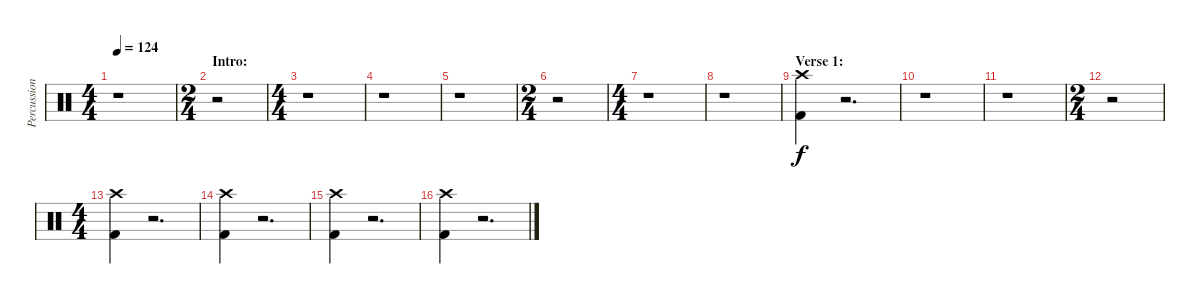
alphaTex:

\track ("Percussion" "Percussion") {instrument percussion}
\staff {score}
\articulation defaults
\ts (4 4)
\tempo 124
\clef neutral
\ks c
r.1{dy f} |
\ts (2 4)
\section ("" "Intro:")
r.2 |
\ts (4 4)
r.1 |
r.1 |
r.1 |
\ts (2 4)
r.2 |
\ts (4 4)
r.1 |
r.1 |
\section ("" "Verse 1:")
("Crash high (hit)" "Kick (hit) 2").4 r.2{d} |
r.1 |
r.1 |
\ts (2 4)
r.2 |
\ts (4 4)
("Crash high (hit)" "Kick (hit) 2").4 r.2{d} |
("Crash high (hit)" "Kick (hit) 2").4 r.2{d} |
("Crash high (hit)" "Kick (hit) 2").4 r.2{d} |
("Crash high (hit)" "Kick (hit) 2").4 r.2{d}
